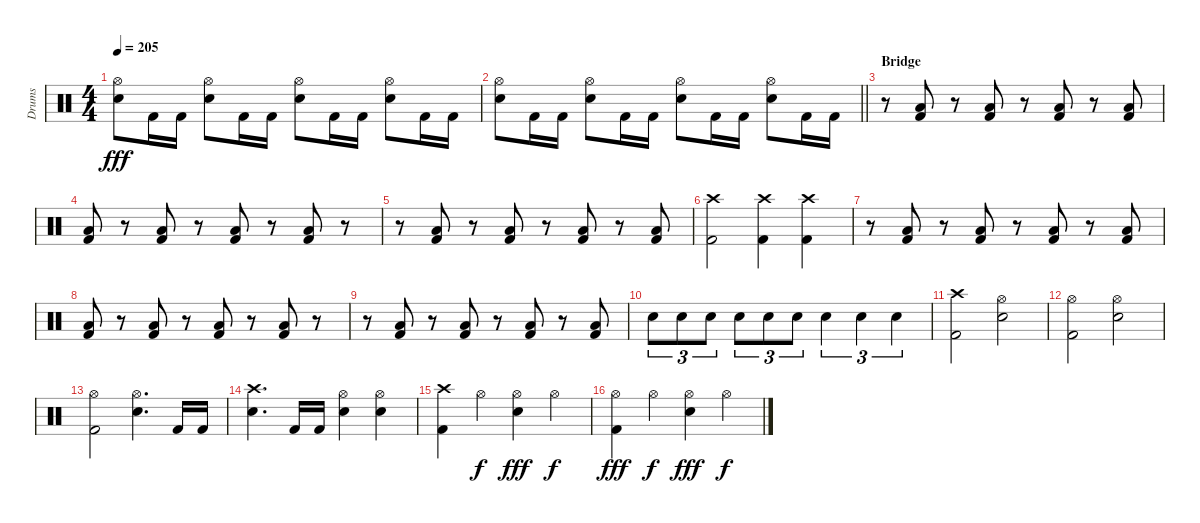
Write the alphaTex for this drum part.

\track ("Drums" "Drums") {instrument percussion}
\staff {score}
\articulation defaults
\ts (4 4)
\tempo 205
\clef neutral
\ks c
("Hi-Hat (open)" "Snare (hit) 2").8{dy fff} "Kick (hit) 2".16 "Kick (hit) 2".16 ("Hi-Hat (open)" "Snare (hit) 2").8 "Kick (hit) 2".16 "Kick (hit) 2".16 ("Hi-Hat (open)" "Snare (hit) 2").8 "Kick (hit) 2".16 "Kick (hit) 2".16 ("Hi-Hat (open)" "Snare (hit) 2").8 "Kick (hit) 2".16 "Kick (hit) 2".16 |
\barLineRight lightlight
("Hi-Hat (open)" "Snare (hit) 2").8 "Kick (hit) 2".16 "Kick (hit) 2".16 ("Hi-Hat (open)" "Snare (hit) 2").8 "Kick (hit) 2".16 "Kick (hit) 2".16 ("Hi-Hat (open)" "Snare (hit) 2").8 "Kick (hit) 2".16 "Kick (hit) 2".16 ("Hi-Hat (open)" "Snare (hit) 2").8 "Kick (hit) 2".16 "Kick (hit) 2".16 |
\section ("" "Bridge")
r.8 ("Low Floor Tom (hit)" "Kick (hit) 2").8 r.8 ("Low Floor Tom (hit)" "Kick (hit) 2").8 r.8 ("Low Floor Tom (hit)" "Kick (hit) 2").8 r.8 ("Low Floor Tom (hit)" "Kick (hit) 2").8 |
("Low Floor Tom (hit)" "Kick (hit) 2").8 r.8 ("Low Floor Tom (hit)" "Kick (hit) 2").8 r.8 ("Low Floor Tom (hit)" "Kick (hit) 2").8 r.8 ("Low Floor Tom (hit)" "Kick (hit) 2").8 r.8 |
r.8 ("Low Floor Tom (hit)" "Kick (hit) 2").8 r.8 ("Low Floor Tom (hit)" "Kick (hit) 2").8 r.8 ("Low Floor Tom (hit)" "Kick (hit) 2").8 r.8 ("Low Floor Tom (hit)" "Kick (hit) 2").8 |
("Crash high (hit)" "Kick (hit) 2").2 ("Crash high (hit)" "Kick (hit) 2").4 ("Crash high (hit)" "Kick (hit) 2").4 |
r.8 ("Low Floor Tom (hit)" "Kick (hit) 2").8 r.8 ("Low Floor Tom (hit)" "Kick (hit) 2").8 r.8 ("Low Floor Tom (hit)" "Kick (hit) 2").8 r.8 ("Low Floor Tom (hit)" "Kick (hit) 2").8 |
("Low Floor Tom (hit)" "Kick (hit) 2").8 r.8 ("Low Floor Tom (hit)" "Kick (hit) 2").8 r.8 ("Low Floor Tom (hit)" "Kick (hit) 2").8 r.8 ("Low Floor Tom (hit)" "Kick (hit) 2").8 r.8 |
r.8 ("Low Floor Tom (hit)" "Kick (hit) 2").8 r.8 ("Low Floor Tom (hit)" "Kick (hit) 2").8 r.8 ("Low Floor Tom (hit)" "Kick (hit) 2").8 r.8 ("Low Floor Tom (hit)" "Kick (hit) 2").8 |
"Snare (hit) 2".8{tu (3 2)} "Snare (hit) 2".8{tu (3 2)} "Snare (hit) 2".8{tu (3 2)} "Snare (hit) 2".8{tu (3 2)} "Snare (hit) 2".8{tu (3 2)} "Snare (hit) 2".8{tu (3 2)} "Snare (hit) 2".4{tu (3 2)} "Snare (hit) 2".4{tu (3 2)} "Snare (hit) 2".4{tu (3 2)} |
("Crash high (hit)" "Kick (hit) 2").2 ("Hi-Hat (open)" "Snare (hit) 2").2 |
("Hi-Hat (open)" "Kick (hit) 2").2 ("Hi-Hat (open)" "Snare (hit) 2").2 |
("Hi-Hat (open)" "Kick (hit) 2").2 ("Hi-Hat (open)" "Snare (hit) 2").4{d} "Kick (hit) 2".16 "Kick (hit) 2".16 |
("Crash high (hit)" "Snare (hit) 2").4{d} "Kick (hit) 2".16 "Kick (hit) 2".16 ("Hi-Hat (open)" "Snare (hit) 2").4 ("Hi-Hat (open)" "Snare (hit) 2").4 |
("Crash high (hit)" "Kick (hit) 2").4 "Hi-Hat (open)".4{dy f} ("Hi-Hat (open)" "Snare (hit) 2").4{dy fff} "Hi-Hat (open)".4{dy f} |
("Hi-Hat (open)" "Kick (hit) 2").4{dy fff} "Hi-Hat (open)".4{dy f} ("Hi-Hat (open)" "Snare (hit) 2").4{dy fff} "Hi-Hat (open)".4{dy f}
